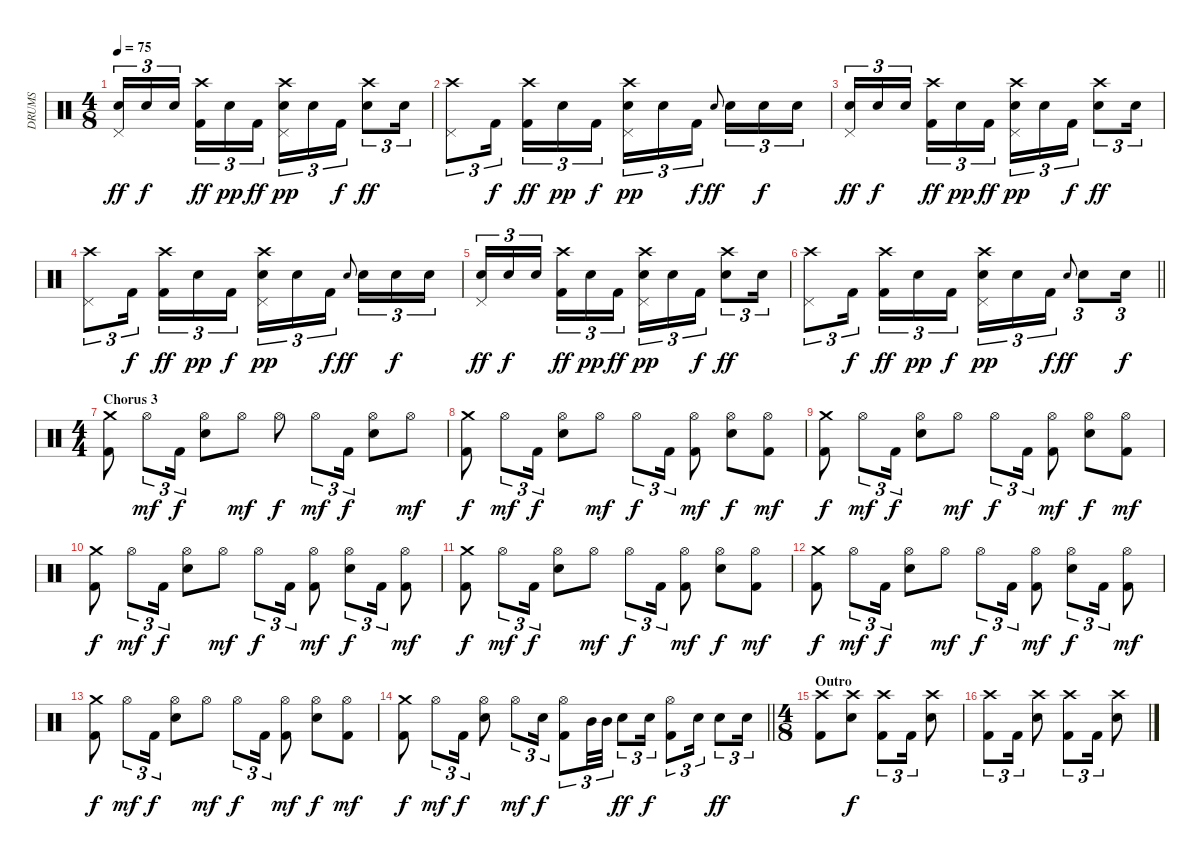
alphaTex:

\track ("DRUMS" "DRUMS") {instrument percussion}
\staff {score}
\articulation defaults
\ts (4 8)
\tempo 75
\clef neutral
\ks c
("Pedal Hi-Hat (hit)" "Snare (hit) 2").16{tu (3 2) dy ff} "Electric Snare (hit)".16{tu (3 2) dy f} "Snare (hit) 2".16{tu (3 2)} ("Crash high (hit)" "Kick (hit) 2").16{tu (3 2) dy ff} "Snare (hit) 2".16{tu (3 2) dy pp} "Kick (hit) 2".16{tu (3 2) dy ff} ("Crash high (hit)" "Pedal Hi-Hat (hit)" "Snare (hit) 2").16{tu (3 2) dy pp} "Snare (hit) 2".16{tu (3 2)} "Kick (hit) 2".16{tu (3 2) dy f} ("Crash high (hit)" "Snare (hit) 2").8{tu (3 2) dy ff} "Snare (hit) 2".16{tu (3 2)} |
("Crash high (hit)" "Pedal Hi-Hat (hit)").8{tu (3 2)} "Kick (hit) 2".16{tu (3 2) dy f} ("Crash high (hit)" "Kick (hit) 2").16{tu (3 2) dy ff} "Snare (hit) 2".16{tu (3 2) dy pp} "Kick (hit) 2".16{tu (3 2) dy f} ("Crash high (hit)" "Pedal Hi-Hat (hit)" "Snare (hit) 2").16{tu (3 2) dy pp} "Snare (hit) 2".16{tu (3 2)} "Kick (hit) 2".16{tu (3 2) dy f} "Electric Snare (hit)".8{gr onbeat dy ff} "Snare (hit) 2".16{tu (3 2)} "Snare (hit) 2".16{tu (3 2) dy f} "Electric Snare (hit)".16{tu (3 2)} |
("Pedal Hi-Hat (hit)" "Snare (hit) 2").16{tu (3 2) dy ff} "Electric Snare (hit)".16{tu (3 2) dy f} "Snare (hit) 2".16{tu (3 2)} ("Crash high (hit)" "Kick (hit) 2").16{tu (3 2) dy ff} "Snare (hit) 2".16{tu (3 2) dy pp} "Kick (hit) 2".16{tu (3 2) dy ff} ("Crash high (hit)" "Pedal Hi-Hat (hit)" "Snare (hit) 2").16{tu (3 2) dy pp} "Snare (hit) 2".16{tu (3 2)} "Kick (hit) 2".16{tu (3 2) dy f} ("Crash high (hit)" "Snare (hit) 2").8{tu (3 2) dy ff} "Snare (hit) 2".16{tu (3 2)} |
("Crash high (hit)" "Pedal Hi-Hat (hit)").8{tu (3 2)} "Kick (hit) 2".16{tu (3 2) dy f} ("Crash high (hit)" "Kick (hit) 2").16{tu (3 2) dy ff} "Snare (hit) 2".16{tu (3 2) dy pp} "Kick (hit) 2".16{tu (3 2) dy f} ("Crash high (hit)" "Pedal Hi-Hat (hit)" "Snare (hit) 2").16{tu (3 2) dy pp} "Snare (hit) 2".16{tu (3 2)} "Kick (hit) 2".16{tu (3 2) dy f} "Electric Snare (hit)".8{gr onbeat dy ff} "Snare (hit) 2".16{tu (3 2)} "Snare (hit) 2".16{tu (3 2) dy f} "Electric Snare (hit)".16{tu (3 2)} |
("Pedal Hi-Hat (hit)" "Snare (hit) 2").16{tu (3 2) dy ff} "Electric Snare (hit)".16{tu (3 2) dy f} "Snare (hit) 2".16{tu (3 2)} ("Crash high (hit)" "Kick (hit) 2").16{tu (3 2) dy ff} "Snare (hit) 2".16{tu (3 2) dy pp} "Kick (hit) 2".16{tu (3 2) dy ff} ("Crash high (hit)" "Pedal Hi-Hat (hit)" "Snare (hit) 2").16{tu (3 2) dy pp} "Snare (hit) 2".16{tu (3 2)} "Kick (hit) 2".16{tu (3 2) dy f} ("Crash high (hit)" "Snare (hit) 2").8{tu (3 2) dy ff} "Snare (hit) 2".16{tu (3 2)} |
\barLineRight lightlight
("Crash high (hit)" "Pedal Hi-Hat (hit)").8{tu (3 2)} "Kick (hit) 2".16{tu (3 2) dy f} ("Crash high (hit)" "Kick (hit) 2").16{tu (3 2) dy ff} "Snare (hit) 2".16{tu (3 2) dy pp} "Kick (hit) 2".16{tu (3 2) dy f} ("Crash high (hit)" "Pedal Hi-Hat (hit)" "Snare (hit) 2").16{tu (3 2) dy pp} "Snare (hit) 2".16{tu (3 2)} "Kick (hit) 2".16{tu (3 2) dy f} "Electric Snare (hit)".8{gr onbeat dy ff} "Snare (hit) 2".8{tu (3 2)} "Electric Snare (hit)".16{tu (3 2) dy f} |
\ts (4 4)
\section ("" "Chorus 3")
("Crash medium (hit)" "Kick (hit) 2").8 "Hi-Hat (open)".8{tu (3 2) dy mf} "Kick (hit) 2".16{tu (3 2) dy f} ("Hi-Hat (open)" "Snare (hit) 2").8 "Hi-Hat (open)".8{dy mf} "Hi-Hat (open)".8{dy f} "Hi-Hat (open)".8{tu (3 2) dy mf} "Kick (hit) 2".16{tu (3 2) dy f} ("Hi-Hat (open)" "Snare (hit) 2").8 "Hi-Hat (open)".8{dy mf} |
("Crash medium (hit)" "Kick (hit) 2").8{dy f} "Hi-Hat (open)".8{tu (3 2) dy mf} "Kick (hit) 2".16{tu (3 2) dy f} ("Hi-Hat (open)" "Snare (hit) 2").8 "Hi-Hat (open)".8{dy mf} "Hi-Hat (open)".8{tu (3 2) dy f} "Kick (hit) 2".16{tu (3 2)} ("Hi-Hat (open)" "Kick (hit) 2").8{dy mf} ("Hi-Hat (open)" "Snare (hit) 2").8{dy f} ("Hi-Hat (open)" "Kick (hit) 2").8{dy mf} |
("Crash medium (hit)" "Kick (hit) 2").8{dy f} "Hi-Hat (open)".8{tu (3 2) dy mf} "Kick (hit) 2".16{tu (3 2) dy f} ("Hi-Hat (open)" "Snare (hit) 2").8 "Hi-Hat (open)".8{dy mf} "Hi-Hat (open)".8{tu (3 2) dy f} "Kick (hit) 2".16{tu (3 2)} ("Hi-Hat (open)" "Kick (hit) 2").8{dy mf} ("Hi-Hat (open)" "Snare (hit) 2").8{dy f} ("Hi-Hat (open)" "Kick (hit) 2").8{dy mf} |
("Crash medium (hit)" "Kick (hit) 2").8{dy f} "Hi-Hat (open)".8{tu (3 2) dy mf} "Kick (hit) 2".16{tu (3 2) dy f} ("Hi-Hat (open)" "Snare (hit) 2").8 "Hi-Hat (open)".8{dy mf} "Hi-Hat (open)".8{tu (3 2) dy f} "Kick (hit) 2".16{tu (3 2)} ("Hi-Hat (open)" "Kick (hit) 2").8{dy mf} ("Hi-Hat (open)" "Snare (hit) 2").8{tu (3 2) dy f} "Kick (hit) 2".16{tu (3 2)} ("Hi-Hat (open)" "Kick (hit) 2").8{dy mf} |
("Crash medium (hit)" "Kick (hit) 2").8{dy f} "Hi-Hat (open)".8{tu (3 2) dy mf} "Kick (hit) 2".16{tu (3 2) dy f} ("Hi-Hat (open)" "Snare (hit) 2").8 "Hi-Hat (open)".8{dy mf} "Hi-Hat (open)".8{tu (3 2) dy f} "Kick (hit) 2".16{tu (3 2)} ("Hi-Hat (open)" "Kick (hit) 2").8{dy mf} ("Hi-Hat (open)" "Snare (hit) 2").8{dy f} ("Hi-Hat (open)" "Kick (hit) 2").8{dy mf} |
("Crash medium (hit)" "Kick (hit) 2").8{dy f} "Hi-Hat (open)".8{tu (3 2) dy mf} "Kick (hit) 2".16{tu (3 2) dy f} ("Hi-Hat (open)" "Snare (hit) 2").8 "Hi-Hat (open)".8{dy mf} "Hi-Hat (open)".8{tu (3 2) dy f} "Kick (hit) 2".16{tu (3 2)} ("Hi-Hat (open)" "Kick (hit) 2").8{dy mf} ("Hi-Hat (open)" "Snare (hit) 2").8{tu (3 2) dy f} "Kick (hit) 2".16{tu (3 2)} ("Hi-Hat (open)" "Kick (hit) 2").8{dy mf} |
("Crash medium (hit)" "Kick (hit) 2").8{dy f} "Hi-Hat (open)".8{tu (3 2) dy mf} "Kick (hit) 2".16{tu (3 2) dy f} ("Hi-Hat (open)" "Snare (hit) 2").8 "Hi-Hat (open)".8{dy mf} "Hi-Hat (open)".8{tu (3 2) dy f} "Kick (hit) 2".16{tu (3 2)} ("Hi-Hat (open)" "Kick (hit) 2").8{dy mf} ("Hi-Hat (open)" "Snare (hit) 2").8{dy f} ("Hi-Hat (open)" "Kick (hit) 2").8{dy mf} |
\barLineRight lightlight
("Crash medium (hit)" "Kick (hit) 2").8{dy f} "Hi-Hat (open)".8{tu (3 2) dy mf} "Kick (hit) 2".16{tu (3 2) dy f} ("Hi-Hat (open)" "Snare (hit) 2").8 "Hi-Hat (open)".8{tu (3 2) dy mf} "Snare (hit) 2".16{tu (3 2) dy f} ("Hi-Hat (open)" "Kick (hit) 2").8{tu (3 2)} "Mid Tom (hit)".32{tu (3 2)} "Mid Tom (hit)".32{tu (3 2)} "Electric Snare (hit)".8{tu (3 2) dy ff} "Snare (hit) 2".16{tu (3 2) dy f} ("Hi-Hat (open)" "Kick (hit) 2").8{tu (3 2)} "Snare (hit) 2".16{tu (3 2)} "Electric Snare (hit)".8{tu (3 2) dy ff} "Snare (hit) 2".16{tu (3 2)} |
\ts (4 8)
\section ("" "Outro")
("Crash high (hit)" "Kick (hit) 2").8 ("Crash high (hit)" "Snare (hit) 2").8{dy f} ("Crash high (hit)" "Kick (hit) 2").8{tu (3 2)} "Kick (hit) 2".16{tu (3 2)} ("Crash high (hit)" "Snare (hit) 2").8 |
("Crash high (hit)" "Kick (hit) 2").8{tu (3 2)} "Kick (hit) 2".16{tu (3 2)} ("Crash high (hit)" "Snare (hit) 2").8 ("Crash high (hit)" "Kick (hit) 2").8{tu (3 2)} "Kick (hit) 2".16{tu (3 2)} ("Crash high (hit)" "Snare (hit) 2").8
